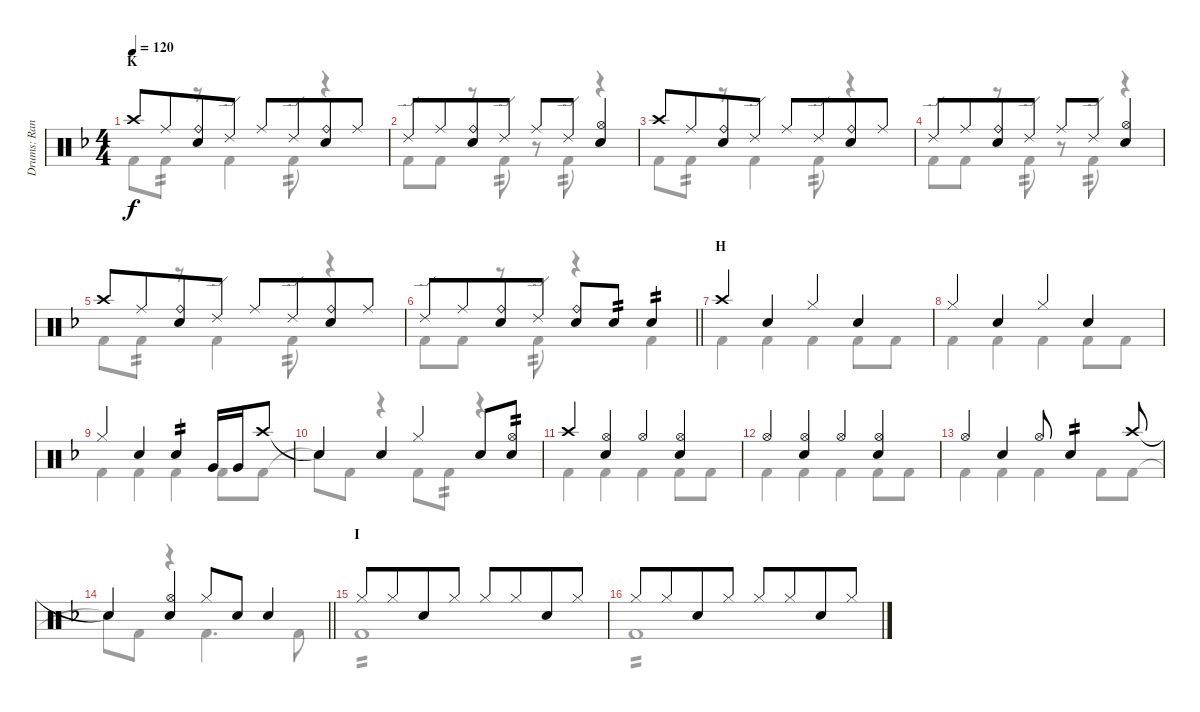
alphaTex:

\track ("Drums: Randy" "Drums: Ran") {instrument percussion}
\staff {score}
\articulation defaults
\voice
\ts (4 4)
\section ("" "K")
\tempo 120
\clef neutral
\ks f "Crash high (hit)".8{dy f} "Ride (middle)".8{beam merge}
("Ride (bell)" "Snare (hit) 2").8 "Ride (edge) 2".8 "Ride (middle)".8 "Ride (edge) 2".8{beam merge} ("Ride (bell)" "Snare (hit) 2").8 "Ride (middle)".8 |
"Ride (edge) 2".8 "Ride (middle)".8{beam merge} ("Ride (bell)" "Snare (hit) 2").8 "Ride (edge) 2".8 "Ride (middle)".8 "Ride (edge) 2".8{beam merge} ("Hi-Hat (open)" "Snare (hit) 2").4 |
"Crash high (hit)".8 "Ride (middle)".8{beam merge} ("Ride (bell)" "Snare (hit) 2").8 "Ride (edge) 2".8 "Ride (middle)".8 "Ride (edge) 2".8{beam merge} ("Ride (bell)" "Snare (hit) 2").8 "Ride (middle)".8 |
"Ride (edge) 2".8 "Ride (middle)".8{beam merge} ("Ride (bell)" "Snare (hit) 2").8 "Ride (edge) 2".8 "Ride (middle)".8 "Ride (edge) 2".8{beam merge} ("Hi-Hat (open)" "Snare (hit) 2").4 |
"Crash high (hit)".8 "Ride (middle)".8{beam merge} ("Ride (bell)" "Snare (hit) 2").8 "Ride (edge) 2".8 "Ride (middle)".8 "Ride (edge) 2".8{beam merge} ("Ride (bell)" "Snare (hit) 2").8 "Ride (middle)".8 |
\barLineRight lightlight "Ride (edge) 2".8 "Ride (middle)".8{beam merge}
("Ride (bell)" "Snare (hit) 2").8 "Ride (edge) 2".8 ("Ride (bell)" "Snare (hit) 2").8 "Snare (hit) 2".8{tp 2 beam merge} "Snare (hit) 2".4{tp 2} |
\section ("" "H")
"Crash high (hit)".4 "Snare (hit) 2".4 "Hi-Hat (closed)".4 "Snare (hit) 2".4 |
"Hi-Hat (closed)".4 "Snare (hit) 2".4 "Hi-Hat (closed)".4 "Snare (hit) 2".4 |
"Hi-Hat (closed)".4 "Snare (hit) 2".4 "Snare (hit) 2".4{tp 2} "Very Low Tom (hit)".16 "Very Low Tom (hit)".16 "Crash high (hit)".8 |
"Snare (hit)"{t}.4 "Snare (hit) 2".4 "Hi-Hat (closed)".4 "Snare (hit) 2".8 ("Hi-Hat (open)" "Electric Snare (hit)").8{tp 2} |
"Crash high (hit)".4 ("Hi-Hat (open)" "Snare (hit) 2").4 "Hi-Hat (open)".4 ("Hi-Hat (open)" "Snare (hit) 2").4 |
"Hi-Hat (open)".4 ("Hi-Hat (open)" "Snare (hit) 2").4 "Hi-Hat (open)".4 ("Hi-Hat (open)" "Snare (hit) 2").4 |
"Hi-Hat (open)".4 "Snare (hit) 2".4 "Hi-Hat (open)".8 "Snare (hit) 2".4{tp 2} "Crash high (hit)".8 |
\barLineRight lightlight "Snare (hit)"{t}.4
("Hi-Hat (open)" "Snare (hit) 2").4 "Hi-Hat (closed)".8 "Snare (hit) 2".8 "Snare (hit) 2".4 |
\section ("" "I")
"Hi-Hat (closed)".8 "Hi-Hat (closed)".8{beam merge} "Snare (hit) 2".8 "Hi-Hat (closed)".8 "Hi-Hat (closed)".8 "Hi-Hat (closed)".8{beam merge} "Snare (hit) 2".8 "Hi-Hat (closed)".8 |
"Hi-Hat (closed)".8 "Hi-Hat (closed)".8{beam merge} "Snare (hit) 2".8 "Hi-Hat (closed)".8 "Hi-Hat (closed)".8 "Hi-Hat (closed)".8{beam merge} "Snare (hit) 2".8 "Hi-Hat (closed)".8
\voice
\clef neutral
\ottava regular
\simile none
\ks f "Kick (hit) 2".8{dy f} "Kick (hit) 2".8{tp 2}
r.8 "Kick (hit) 2".4 "Kick (hit) 2".8{tp 2} r.4 |
"Kick (hit) 2".8 "Kick (hit) 2".8 r.8 "Kick (hit) 2".8{tp 2} r.8 "Kick (hit) 2".8{tp 2} r.4 |
"Kick (hit) 2".8 "Kick (hit) 2".8{tp 2} r.8 "Kick (hit) 2".4 "Kick (hit) 2".8{tp 2} r.4 |
"Kick (hit) 2".8 "Kick (hit) 2".8 r.8 "Kick (hit) 2".8{tp 2} r.8 "Kick (hit) 2".8{tp 2} r.4 |
"Kick (hit) 2".8 "Kick (hit) 2".8{tp 2} r.8 "Kick (hit) 2".4 "Kick (hit) 2".8{tp 2} r.4 |
\barLineRight lightlight "Kick (hit) 2".8 "Kick (hit) 2".8
r.8 "Kick (hit) 2".8{tp 2} r.4 "Kick (hit) 2".4 |
"Kick (hit) 2".4 "Kick (hit) 2".4 "Kick (hit) 2".4 "Kick (hit) 2".8 "Kick (hit) 2".8 |
"Kick (hit) 2".4 "Kick (hit) 2".4 "Kick (hit) 2".4 "Kick (hit) 2".8 "Kick (hit) 2".8 |
"Kick (hit) 2".4 "Kick (hit) 2".4 "Kick (hit) 2".4 "Kick (hit) 2".8 "Kick (hit) 2".8 |
"Snare (hit)"{t}.8 "Kick (hit) 2".8 r.4 "Kick (hit) 2".8 "Kick (hit) 2".8{tp 2} r.4 |
"Kick (hit) 2".4 "Kick (hit) 2".4 "Kick (hit) 2".4 "Kick (hit) 2".8 "Kick (hit) 2".8 |
"Kick (hit) 2".4 "Kick (hit) 2".4 "Kick (hit) 2".4 "Kick (hit) 2".8 "Kick (hit) 2".8 |
"Kick (hit) 2".4 "Kick (hit) 2".4 "Kick (hit) 2".4 "Kick (hit) 2".8 "Kick (hit) 2".8 |
\barLineRight lightlight "Snare (hit)"{t}.8 "Kick (hit) 2".8
r.4 "Kick (hit) 2".4{d} "Kick (hit) 2".8 |
"Kick (hit) 2".1{tp 2} |
"Kick (hit) 2".1{tp 2}
